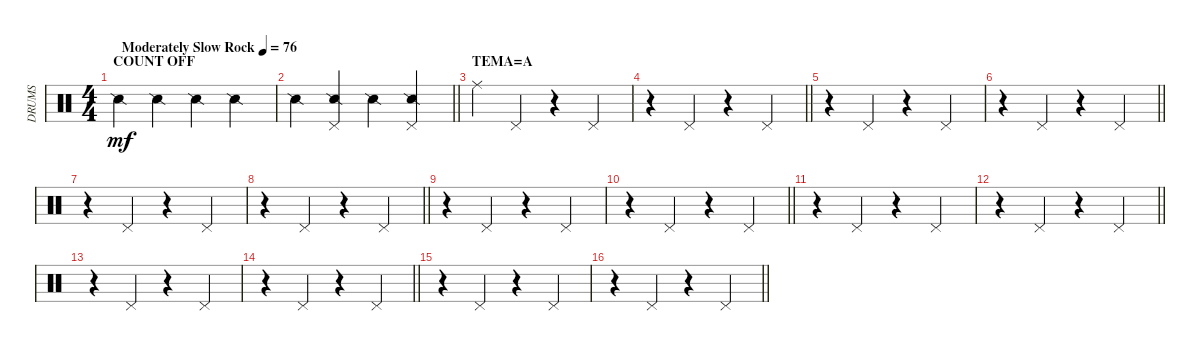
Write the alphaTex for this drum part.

\track ("DRUMS" "DRUMS") {instrument percussion}
\staff {score}
\articulation defaults
\ts (4 4)
\section ("" "COUNT OFF")
\tempo (76 "Moderately Slow Rock")
\clef neutral
\ks c "Snare (side stick) 2".4{dy mf} "Snare (side stick) 2".4 "Snare (side stick) 2".4 "Snare (side stick) 2".4
|
\barLineRight lightlight "Snare (side stick) 2".4
("Snare (side stick) 2" "Pedal Hi-Hat (hit)").4 "Snare (side stick) 2".4 ("Snare (side stick) 2" "Pedal Hi-Hat (hit)").4 |
\section ("" "TEMA=A")
"Ride (middle)".4 "Pedal Hi-Hat (hit)".4 r.4 "Pedal Hi-Hat (hit)".4 |
\barLineRight lightlight
r.4 "Pedal Hi-Hat (hit)".4 r.4 "Pedal Hi-Hat (hit)".4 |
r.4 "Pedal Hi-Hat (hit)".4 r.4 "Pedal Hi-Hat (hit)".4 |
\barLineRight lightlight
r.4 "Pedal Hi-Hat (hit)".4 r.4 "Pedal Hi-Hat (hit)".4 |
r.4 "Pedal Hi-Hat (hit)".4 r.4 "Pedal Hi-Hat (hit)".4 |
\barLineRight lightlight
r.4 "Pedal Hi-Hat (hit)".4 r.4 "Pedal Hi-Hat (hit)".4 |
r.4 "Pedal Hi-Hat (hit)".4 r.4 "Pedal Hi-Hat (hit)".4 |
\barLineRight lightlight
r.4 "Pedal Hi-Hat (hit)".4 r.4 "Pedal Hi-Hat (hit)".4 |
r.4 "Pedal Hi-Hat (hit)".4 r.4 "Pedal Hi-Hat (hit)".4 |
\barLineRight lightlight
r.4 "Pedal Hi-Hat (hit)".4 r.4 "Pedal Hi-Hat (hit)".4 |
r.4 "Pedal Hi-Hat (hit)".4 r.4 "Pedal Hi-Hat (hit)".4 |
\barLineRight lightlight
r.4 "Pedal Hi-Hat (hit)".4 r.4 "Pedal Hi-Hat (hit)".4 |
r.4 "Pedal Hi-Hat (hit)".4 r.4 "Pedal Hi-Hat (hit)".4 |
\barLineRight lightlight
r.4 "Pedal Hi-Hat (hit)".4 r.4 "Pedal Hi-Hat (hit)".4
